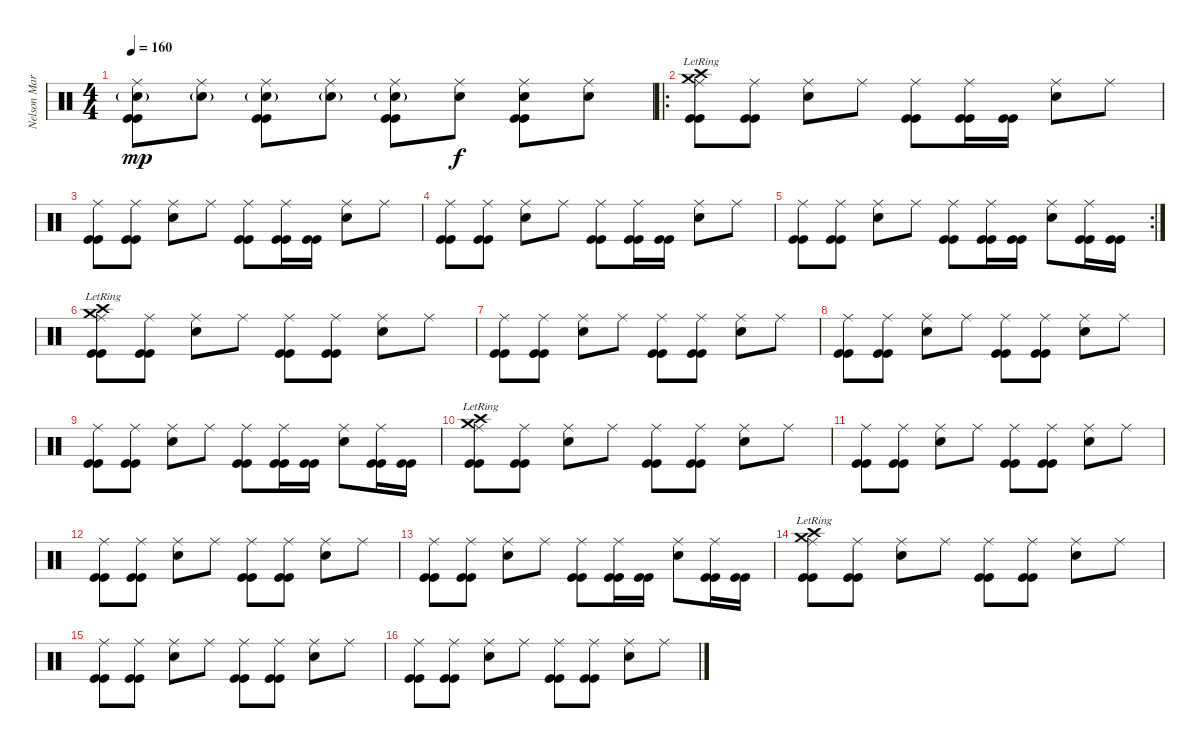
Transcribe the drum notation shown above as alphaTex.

\track ("Nelson Maria" "Nelson Mar") {instrument percussion}
\staff {score}
\articulation defaults
\ts (4 4)
\tempo 160
\clef neutral
\ks c
("Snare (hit) 2"{g} "Ride (middle)" "Kick (hit)" "Kick (hit)").8{dy mp} ("Snare (hit) 2"{g} "Ride (middle)").8 ("Snare (hit) 2"{g} "Ride (middle)" "Kick (hit)" "Kick (hit)").8 ("Snare (hit) 2"{g} "Ride (middle)").8 ("Snare (hit) 2"{g} "Ride (middle)" "Kick (hit)" "Kick (hit)").8 ("Snare (hit) 2" "Ride (middle)").8{dy f} ("Snare (hit) 2" "Ride (middle)" "Kick (hit)" "Kick (hit)").8 ("Snare (hit) 2" "Ride (middle)").8 |
\ro
("Crash high (hit)"{lr} "Crash medium (hit)"{lr} "Ride (middle)" "Kick (hit)" "Kick (hit)").8 ("Ride (middle)" "Kick (hit)" "Kick (hit)").8 ("Snare (hit) 2" "Ride (middle)").8 "Ride (middle)".8 ("Ride (middle)" "Kick (hit)" "Kick (hit)").8 ("Ride (middle)" "Kick (hit)" "Kick (hit)").16 ("Kick (hit)" "Kick (hit)").16 ("Snare (hit) 2" "Ride (middle)").8 "Ride (middle)".8 |
("Ride (middle)" "Kick (hit)" "Kick (hit)").8 ("Ride (middle)" "Kick (hit)" "Kick (hit)").8 ("Snare (hit) 2" "Ride (middle)").8 "Ride (middle)".8 ("Ride (middle)" "Kick (hit)" "Kick (hit)").8 ("Ride (middle)" "Kick (hit)" "Kick (hit)").16 ("Kick (hit)" "Kick (hit)").16 ("Snare (hit) 2" "Ride (middle)").8 "Ride (middle)".8 |
("Ride (middle)" "Kick (hit)" "Kick (hit)").8 ("Ride (middle)" "Kick (hit)" "Kick (hit)").8 ("Snare (hit) 2" "Ride (middle)").8 "Ride (middle)".8 ("Ride (middle)" "Kick (hit)" "Kick (hit)").8 ("Ride (middle)" "Kick (hit)" "Kick (hit)").16 ("Kick (hit)" "Kick (hit)").16 ("Snare (hit) 2" "Ride (middle)").8 "Ride (middle)".8 |
\rc 2
("Ride (middle)" "Kick (hit)" "Kick (hit)").8 ("Ride (middle)" "Kick (hit)" "Kick (hit)").8 ("Snare (hit) 2" "Ride (middle)").8 "Ride (middle)".8 ("Ride (middle)" "Kick (hit)" "Kick (hit)").8 ("Ride (middle)" "Kick (hit)" "Kick (hit)").16 ("Kick (hit)" "Kick (hit)").16 ("Snare (hit) 2" "Ride (middle)").8 ("Ride (middle)" "Kick (hit)" "Kick (hit)").16 ("Kick (hit)" "Kick (hit)").16 |
("Crash high (hit)"{lr} "Crash medium (hit)"{lr} "Ride (middle)" "Kick (hit)" "Kick (hit)").8 ("Ride (middle)" "Kick (hit)" "Kick (hit)").8 ("Snare (hit) 2" "Ride (middle)").8 "Ride (middle)".8 ("Ride (middle)" "Kick (hit)" "Kick (hit)").8 ("Ride (middle)" "Kick (hit)" "Kick (hit)").8 ("Snare (hit) 2" "Ride (middle)").8 "Ride (middle)".8 |
("Ride (middle)" "Kick (hit)" "Kick (hit)").8 ("Ride (middle)" "Kick (hit)" "Kick (hit)").8 ("Snare (hit) 2" "Ride (middle)").8 "Ride (middle)".8 ("Ride (middle)" "Kick (hit)" "Kick (hit)").8 ("Ride (middle)" "Kick (hit)" "Kick (hit)").8 ("Snare (hit) 2" "Ride (middle)").8 "Ride (middle)".8 |
("Ride (middle)" "Kick (hit)" "Kick (hit)").8 ("Ride (middle)" "Kick (hit)" "Kick (hit)").8 ("Snare (hit) 2" "Ride (middle)").8 "Ride (middle)".8 ("Ride (middle)" "Kick (hit)" "Kick (hit)").8 ("Ride (middle)" "Kick (hit)" "Kick (hit)").8 ("Snare (hit) 2" "Ride (middle)").8 "Ride (middle)".8 |
("Ride (middle)" "Kick (hit)" "Kick (hit)").8 ("Ride (middle)" "Kick (hit)" "Kick (hit)").8 ("Snare (hit) 2" "Ride (middle)").8 "Ride (middle)".8 ("Ride (middle)" "Kick (hit)" "Kick (hit)").8 ("Ride (middle)" "Kick (hit)" "Kick (hit)").16 ("Kick (hit)" "Kick (hit)").16 ("Snare (hit) 2" "Ride (middle)").8 ("Ride (middle)" "Kick (hit)" "Kick (hit)").16 ("Kick (hit)" "Kick (hit)").16 |
("Crash high (hit)"{lr} "Crash medium (hit)"{lr} "Ride (middle)" "Kick (hit)" "Kick (hit)").8 ("Ride (middle)" "Kick (hit)" "Kick (hit)").8 ("Snare (hit) 2" "Ride (middle)").8 "Ride (middle)".8 ("Ride (middle)" "Kick (hit)" "Kick (hit)").8 ("Ride (middle)" "Kick (hit)" "Kick (hit)").8 ("Snare (hit) 2" "Ride (middle)").8 "Ride (middle)".8 |
("Ride (middle)" "Kick (hit)" "Kick (hit)").8 ("Ride (middle)" "Kick (hit)" "Kick (hit)").8 ("Snare (hit) 2" "Ride (middle)").8 "Ride (middle)".8 ("Ride (middle)" "Kick (hit)" "Kick (hit)").8 ("Ride (middle)" "Kick (hit)" "Kick (hit)").8 ("Snare (hit) 2" "Ride (middle)").8 "Ride (middle)".8 |
("Ride (middle)" "Kick (hit)" "Kick (hit)").8 ("Ride (middle)" "Kick (hit)" "Kick (hit)").8 ("Snare (hit) 2" "Ride (middle)").8 "Ride (middle)".8 ("Ride (middle)" "Kick (hit)" "Kick (hit)").8 ("Ride (middle)" "Kick (hit)" "Kick (hit)").8 ("Snare (hit) 2" "Ride (middle)").8 "Ride (middle)".8 |
("Ride (middle)" "Kick (hit)" "Kick (hit)").8 ("Ride (middle)" "Kick (hit)" "Kick (hit)").8 ("Snare (hit) 2" "Ride (middle)").8 "Ride (middle)".8 ("Ride (middle)" "Kick (hit)" "Kick (hit)").8 ("Ride (middle)" "Kick (hit)" "Kick (hit)").16 ("Kick (hit)" "Kick (hit)").16 ("Snare (hit) 2" "Ride (middle)").8 ("Ride (middle)" "Kick (hit)" "Kick (hit)").16 ("Kick (hit)" "Kick (hit)").16 |
("Crash high (hit)"{lr} "Crash medium (hit)"{lr} "Ride (middle)" "Kick (hit)" "Kick (hit)").8 ("Ride (middle)" "Kick (hit)" "Kick (hit)").8 ("Snare (hit) 2" "Ride (middle)").8 "Ride (middle)".8 ("Ride (middle)" "Kick (hit)" "Kick (hit)").8 ("Ride (middle)" "Kick (hit)" "Kick (hit)").8 ("Snare (hit) 2" "Ride (middle)").8 "Ride (middle)".8 |
("Ride (middle)" "Kick (hit)" "Kick (hit)").8 ("Ride (middle)" "Kick (hit)" "Kick (hit)").8 ("Snare (hit) 2" "Ride (middle)").8 "Ride (middle)".8 ("Ride (middle)" "Kick (hit)" "Kick (hit)").8 ("Ride (middle)" "Kick (hit)" "Kick (hit)").8 ("Snare (hit) 2" "Ride (middle)").8 "Ride (middle)".8 |
("Ride (middle)" "Kick (hit)" "Kick (hit)").8 ("Ride (middle)" "Kick (hit)" "Kick (hit)").8 ("Snare (hit) 2" "Ride (middle)").8 "Ride (middle)".8 ("Ride (middle)" "Kick (hit)" "Kick (hit)").8 ("Ride (middle)" "Kick (hit)" "Kick (hit)").8 ("Snare (hit) 2" "Ride (middle)").8 "Ride (middle)".8
